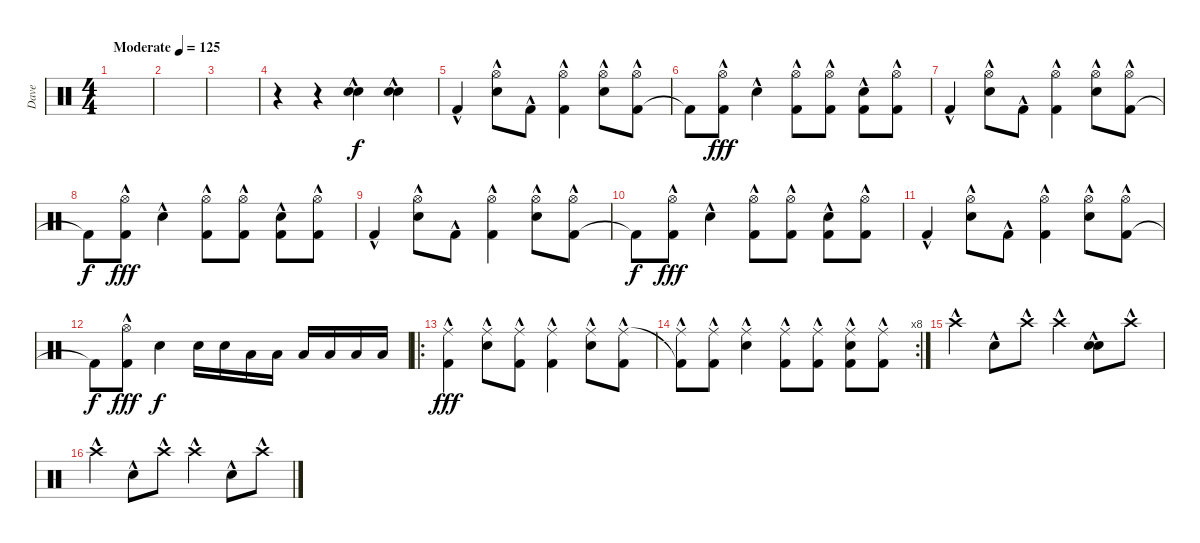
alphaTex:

\track ("Dave" "Dave") {instrument percussion}
\staff {score}
\articulation defaults
\ts (4 4)
\tempo (125 "Moderate")
\clef neutral
\ks c
|
|
|
r.4 r.4 ("Electric Snare (hit)"{hac} "Electric Snare (hit)"{hac}).4 ("Electric Snare (hit)"{hac} "Electric Snare (hit)"{hac}).4 |
"Kick (hit) 2"{hac}.4 ("Electric Snare (hit)"{hac} "Hi-Hat (open)"{hac}).8 "Kick (hit) 2"{hac}.8 ("Kick (hit) 2"{hac} "Hi-Hat (open)"{hac}).4 ("Electric Snare (hit)"{hac} "Hi-Hat (open)"{hac}).8 ("Kick (hit) 2"{hac} "Hi-Hat (open)"{hac}).8 |
"Kick (hit) 2"{t}.8{dy f} ("Kick (hit) 2"{hac} "Hi-Hat (open)"{hac}).8{dy fff} "Electric Snare (hit)"{hac}.4 ("Hi-Hat (open)"{hac} "Kick (hit) 2"{hac}).8 ("Kick (hit) 2"{hac} "Hi-Hat (open)"{hac}).8 ("Kick (hit) 2"{hac} "Electric Snare (hit)"{hac}).8 ("Kick (hit) 2"{hac} "Hi-Hat (open)"{hac}).8 |
"Kick (hit) 2"{hac}.4 ("Electric Snare (hit)"{hac} "Hi-Hat (open)"{hac}).8 "Kick (hit) 2"{hac}.8 ("Kick (hit) 2"{hac} "Hi-Hat (open)"{hac}).4 ("Electric Snare (hit)"{hac} "Hi-Hat (open)"{hac}).8 ("Kick (hit) 2"{hac} "Hi-Hat (open)"{hac}).8 |
"Kick (hit) 2"{t}.8{dy f} ("Kick (hit) 2"{hac} "Hi-Hat (open)"{hac}).8{dy fff} "Electric Snare (hit)"{hac}.4 ("Hi-Hat (open)"{hac} "Kick (hit) 2"{hac}).8 ("Kick (hit) 2"{hac} "Hi-Hat (open)"{hac}).8 ("Kick (hit) 2"{hac} "Electric Snare (hit)"{hac}).8 ("Kick (hit) 2"{hac} "Hi-Hat (open)"{hac}).8 |
"Kick (hit) 2"{hac}.4 ("Electric Snare (hit)"{hac} "Hi-Hat (open)"{hac}).8 "Kick (hit) 2"{hac}.8 ("Kick (hit) 2"{hac} "Hi-Hat (open)"{hac}).4 ("Electric Snare (hit)"{hac} "Hi-Hat (open)"{hac}).8 ("Kick (hit) 2"{hac} "Hi-Hat (open)"{hac}).8 |
"Kick (hit) 2"{t}.8{dy f} ("Kick (hit) 2"{hac} "Hi-Hat (open)"{hac}).8{dy fff} "Electric Snare (hit)"{hac}.4 ("Hi-Hat (open)"{hac} "Kick (hit) 2"{hac}).8 ("Kick (hit) 2"{hac} "Hi-Hat (open)"{hac}).8 ("Kick (hit) 2"{hac} "Electric Snare (hit)"{hac}).8 ("Kick (hit) 2"{hac} "Hi-Hat (open)"{hac}).8 |
"Kick (hit) 2"{hac}.4 ("Electric Snare (hit)"{hac} "Hi-Hat (open)"{hac}).8 "Kick (hit) 2"{hac}.8 ("Kick (hit) 2"{hac} "Hi-Hat (open)"{hac}).4 ("Electric Snare (hit)"{hac} "Hi-Hat (open)"{hac}).8 ("Kick (hit) 2"{hac} "Hi-Hat (open)"{hac}).8 |
"Kick (hit) 2"{t}.8{dy f} ("Kick (hit) 2"{hac} "Hi-Hat (open)"{hac}).8{dy fff} "Electric Snare (hit)".4{dy f} "Electric Snare (hit)".16 "Electric Snare (hit)".16 "Low Tom (hit)".16 "Low Tom (hit)".16 "Low Tom (hit)".16 "Low Tom (hit)".16 "Low Tom (hit)".16 "Low Tom (hit)".16 |
\ro
("Kick (hit) 2"{hac} "Ride (middle)"{hac}).4{dy fff} ("Electric Snare (hit)"{hac} "Ride (middle)"{hac}).8 ("Kick (hit) 2"{hac} "Ride (middle)"{hac}).8 ("Kick (hit) 2"{hac} "Ride (middle)"{hac}).4 ("Electric Snare (hit)"{hac} "Ride (middle)"{hac}).8 ("Kick (hit) 2"{hac} "Ride (middle)"{hac}).8 |
\rc 8
("Ride (middle)"{hac} "Kick (hit) 2"{t}).8 ("Kick (hit) 2"{hac} "Ride (middle)"{hac}).8 ("Electric Snare (hit)"{hac} "Ride (middle)"{hac}).4 ("Ride (middle)"{hac} "Kick (hit) 2"{hac}).8 ("Kick (hit) 2"{hac} "Ride (middle)"{hac}).8 ("Kick (hit) 2"{hac} "Electric Snare (hit)"{hac} "Ride (middle)"{hac}).8 ("Kick (hit) 2"{hac} "Ride (middle)"{hac}).8 |
"Crash high (hit)"{hac}.4 "Electric Snare (hit)"{hac}.8 "Crash high (hit)"{hac}.8 "Crash high (hit)"{hac}.4 ("Electric Snare (hit)"{hac} "Electric Snare (hit)"{hac}).8 "Crash high (hit)"{hac}.8 |
"Crash high (hit)"{hac}.4 "Electric Snare (hit)"{hac}.8 "Crash high (hit)"{hac}.8 "Crash high (hit)"{hac}.4 "Electric Snare (hit)"{hac}.8 "Crash high (hit)"{hac}.8
